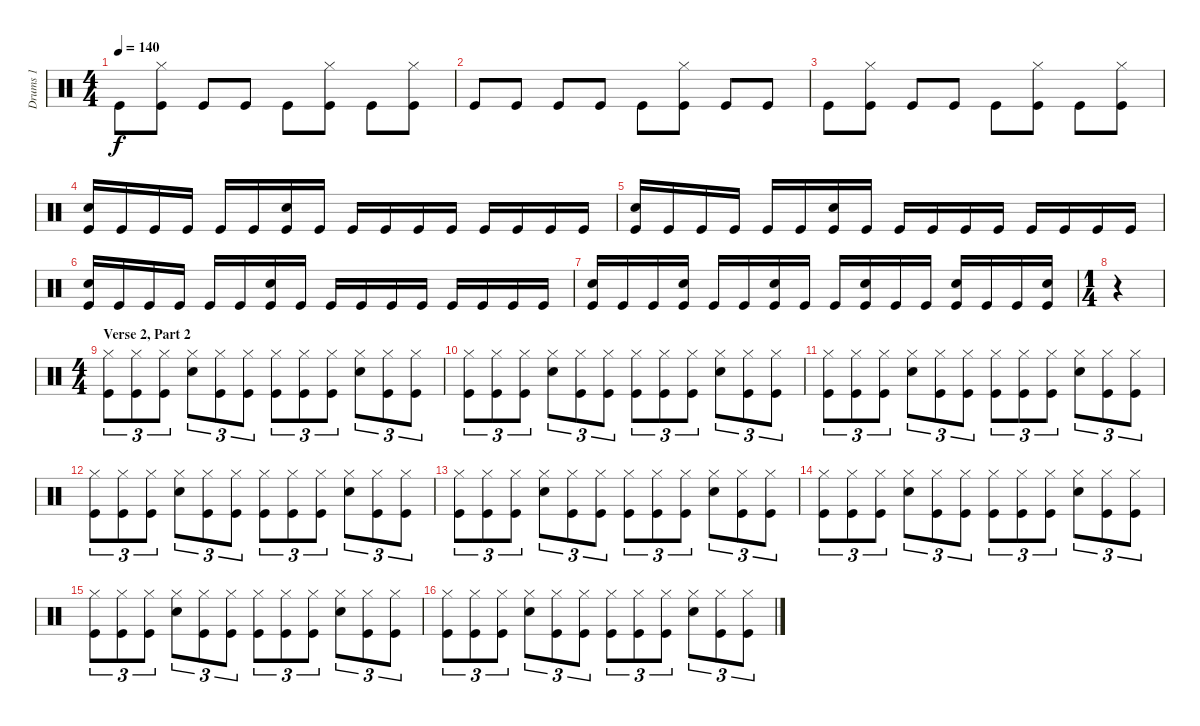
\track ("Drums 1" "Drums 1") {instrument percussion}
\staff {score}
\articulation defaults
\ts (4 4)
\tempo 140
\clef neutral
\ks c "Kick (hit)".8{dy f}
("Hi-Hat (closed)" "Kick (hit)").8 "Kick (hit)".8 "Kick (hit)".8 "Kick (hit)".8 ("Hi-Hat (closed)" "Kick (hit)").8 "Kick (hit)".8 ("Hi-Hat (closed)" "Kick (hit)").8 |
"Kick (hit)".8 "Kick (hit)".8 "Kick (hit)".8 "Kick (hit)".8 "Kick (hit)".8 ("Hi-Hat (closed)" "Kick (hit)").8 "Kick (hit)".8 "Kick (hit)".8 |
"Kick (hit)".8 ("Hi-Hat (closed)" "Kick (hit)").8 "Kick (hit)".8 "Kick (hit)".8 "Kick (hit)".8 ("Hi-Hat (closed)" "Kick (hit)").8 "Kick (hit)".8 ("Hi-Hat (closed)" "Kick (hit)").8 |
("Snare (hit) 2" "Kick (hit)").16 "Kick (hit)".16 "Kick (hit)".16 "Kick (hit)".16 "Kick (hit)".16 "Kick (hit)".16 ("Snare (hit) 2" "Kick (hit)").16 "Kick (hit)".16 "Kick (hit)".16 "Kick (hit)".16 "Kick (hit)".16 "Kick (hit)".16 "Kick (hit)".16 "Kick (hit)".16 "Kick (hit)".16 "Kick (hit)".16 |
("Snare (hit) 2" "Kick (hit)").16 "Kick (hit)".16 "Kick (hit)".16 "Kick (hit)".16 "Kick (hit)".16 "Kick (hit)".16 ("Snare (hit) 2" "Kick (hit)").16 "Kick (hit)".16 "Kick (hit)".16 "Kick (hit)".16 "Kick (hit)".16 "Kick (hit)".16 "Kick (hit)".16 "Kick (hit)".16 "Kick (hit)".16 "Kick (hit)".16 |
("Snare (hit) 2" "Kick (hit)").16 "Kick (hit)".16 "Kick (hit)".16 "Kick (hit)".16 "Kick (hit)".16 "Kick (hit)".16 ("Snare (hit) 2" "Kick (hit)").16 "Kick (hit)".16 "Kick (hit)".16 "Kick (hit)".16 "Kick (hit)".16 "Kick (hit)".16 "Kick (hit)".16 "Kick (hit)".16 "Kick (hit)".16 "Kick (hit)".16 |
("Snare (hit) 2" "Kick (hit)").16 "Kick (hit)".16 "Kick (hit)".16 ("Snare (hit) 2" "Kick (hit)").16 "Kick (hit)".16 "Kick (hit)".16 ("Snare (hit) 2" "Kick (hit)").16 "Kick (hit)".16 "Kick (hit)".16 ("Snare (hit) 2" "Kick (hit)").16 "Kick (hit)".16 "Kick (hit)".16 ("Snare (hit) 2" "Kick (hit)").16 "Kick (hit)".16 "Kick (hit)".16 ("Snare (hit) 2" "Kick (hit)").16 |
\ts (1 4)
r.4 |
\ts (4 4)
\section ("" "Verse 2, Part 2")
("Hi-Hat (closed)" "Kick (hit)").8{tu (3 2)} ("Hi-Hat (closed)" "Kick (hit)").8{tu (3 2)} ("Hi-Hat (closed)" "Kick (hit)").8{tu (3 2)} ("Hi-Hat (closed)" "Snare (hit) 2").8{tu (3 2)} ("Hi-Hat (closed)" "Kick (hit)").8{tu (3 2)} ("Hi-Hat (closed)" "Kick (hit)").8{tu (3 2)} ("Hi-Hat (closed)" "Kick (hit)").8{tu (3 2)} ("Hi-Hat (closed)" "Kick (hit)").8{tu (3 2)} ("Hi-Hat (closed)" "Kick (hit)").8{tu (3 2)} ("Hi-Hat (closed)" "Snare (hit) 2").8{tu (3 2)} ("Hi-Hat (closed)" "Kick (hit)").8{tu (3 2)} ("Hi-Hat (closed)" "Kick (hit)").8{tu (3 2)} |
("Hi-Hat (closed)" "Kick (hit)").8{tu (3 2)} ("Hi-Hat (closed)" "Kick (hit)").8{tu (3 2)} ("Hi-Hat (closed)" "Kick (hit)").8{tu (3 2)} ("Hi-Hat (closed)" "Snare (hit) 2").8{tu (3 2)} ("Hi-Hat (closed)" "Kick (hit)").8{tu (3 2)} ("Hi-Hat (closed)" "Kick (hit)").8{tu (3 2)} ("Hi-Hat (closed)" "Kick (hit)").8{tu (3 2)} ("Hi-Hat (closed)" "Kick (hit)").8{tu (3 2)} ("Hi-Hat (closed)" "Kick (hit)").8{tu (3 2)} ("Hi-Hat (closed)" "Snare (hit) 2").8{tu (3 2)} ("Hi-Hat (closed)" "Kick (hit)").8{tu (3 2)} ("Hi-Hat (closed)" "Kick (hit)").8{tu (3 2)} |
("Hi-Hat (closed)" "Kick (hit)").8{tu (3 2)} ("Hi-Hat (closed)" "Kick (hit)").8{tu (3 2)} ("Hi-Hat (closed)" "Kick (hit)").8{tu (3 2)} ("Hi-Hat (closed)" "Snare (hit) 2").8{tu (3 2)} ("Hi-Hat (closed)" "Kick (hit)").8{tu (3 2)} ("Hi-Hat (closed)" "Kick (hit)").8{tu (3 2)} ("Hi-Hat (closed)" "Kick (hit)").8{tu (3 2)} ("Hi-Hat (closed)" "Kick (hit)").8{tu (3 2)} ("Hi-Hat (closed)" "Kick (hit)").8{tu (3 2)} ("Hi-Hat (closed)" "Snare (hit) 2").8{tu (3 2)} ("Hi-Hat (closed)" "Kick (hit)").8{tu (3 2)} ("Hi-Hat (closed)" "Kick (hit)").8{tu (3 2)} |
("Hi-Hat (closed)" "Kick (hit)").8{tu (3 2)} ("Hi-Hat (closed)" "Kick (hit)").8{tu (3 2)} ("Hi-Hat (closed)" "Kick (hit)").8{tu (3 2)} ("Hi-Hat (closed)" "Snare (hit) 2").8{tu (3 2)} ("Hi-Hat (closed)" "Kick (hit)").8{tu (3 2)} ("Hi-Hat (closed)" "Kick (hit)").8{tu (3 2)} ("Hi-Hat (closed)" "Kick (hit)").8{tu (3 2)} ("Hi-Hat (closed)" "Kick (hit)").8{tu (3 2)} ("Hi-Hat (closed)" "Kick (hit)").8{tu (3 2)} ("Hi-Hat (closed)" "Snare (hit) 2").8{tu (3 2)} ("Hi-Hat (closed)" "Kick (hit)").8{tu (3 2)} ("Hi-Hat (closed)" "Kick (hit)").8{tu (3 2)} |
("Hi-Hat (closed)" "Kick (hit)").8{tu (3 2)} ("Hi-Hat (closed)" "Kick (hit)").8{tu (3 2)} ("Hi-Hat (closed)" "Kick (hit)").8{tu (3 2)} ("Hi-Hat (closed)" "Snare (hit) 2").8{tu (3 2)} ("Hi-Hat (closed)" "Kick (hit)").8{tu (3 2)} ("Hi-Hat (closed)" "Kick (hit)").8{tu (3 2)} ("Hi-Hat (closed)" "Kick (hit)").8{tu (3 2)} ("Hi-Hat (closed)" "Kick (hit)").8{tu (3 2)} ("Hi-Hat (closed)" "Kick (hit)").8{tu (3 2)} ("Hi-Hat (closed)" "Snare (hit) 2").8{tu (3 2)} ("Hi-Hat (closed)" "Kick (hit)").8{tu (3 2)} ("Hi-Hat (closed)" "Kick (hit)").8{tu (3 2)} |
("Hi-Hat (closed)" "Kick (hit)").8{tu (3 2)} ("Hi-Hat (closed)" "Kick (hit)").8{tu (3 2)} ("Hi-Hat (closed)" "Kick (hit)").8{tu (3 2)} ("Hi-Hat (closed)" "Snare (hit) 2").8{tu (3 2)} ("Hi-Hat (closed)" "Kick (hit)").8{tu (3 2)} ("Hi-Hat (closed)" "Kick (hit)").8{tu (3 2)} ("Hi-Hat (closed)" "Kick (hit)").8{tu (3 2)} ("Hi-Hat (closed)" "Kick (hit)").8{tu (3 2)} ("Hi-Hat (closed)" "Kick (hit)").8{tu (3 2)} ("Hi-Hat (closed)" "Snare (hit) 2").8{tu (3 2)} ("Hi-Hat (closed)" "Kick (hit)").8{tu (3 2)} ("Hi-Hat (closed)" "Kick (hit)").8{tu (3 2)} |
("Hi-Hat (closed)" "Kick (hit)").8{tu (3 2)} ("Hi-Hat (closed)" "Kick (hit)").8{tu (3 2)} ("Hi-Hat (closed)" "Kick (hit)").8{tu (3 2)} ("Hi-Hat (closed)" "Snare (hit) 2").8{tu (3 2)} ("Hi-Hat (closed)" "Kick (hit)").8{tu (3 2)} ("Hi-Hat (closed)" "Kick (hit)").8{tu (3 2)} ("Hi-Hat (closed)" "Kick (hit)").8{tu (3 2)} ("Hi-Hat (closed)" "Kick (hit)").8{tu (3 2)} ("Hi-Hat (closed)" "Kick (hit)").8{tu (3 2)} ("Hi-Hat (closed)" "Snare (hit) 2").8{tu (3 2)} ("Hi-Hat (closed)" "Kick (hit)").8{tu (3 2)} ("Hi-Hat (closed)" "Kick (hit)").8{tu (3 2)} |
("Hi-Hat (closed)" "Kick (hit)").8{tu (3 2)} ("Hi-Hat (closed)" "Kick (hit)").8{tu (3 2)} ("Hi-Hat (closed)" "Kick (hit)").8{tu (3 2)} ("Hi-Hat (closed)" "Snare (hit) 2").8{tu (3 2)} ("Hi-Hat (closed)" "Kick (hit)").8{tu (3 2)} ("Hi-Hat (closed)" "Kick (hit)").8{tu (3 2)} ("Hi-Hat (closed)" "Kick (hit)").8{tu (3 2)} ("Hi-Hat (closed)" "Kick (hit)").8{tu (3 2)} ("Hi-Hat (closed)" "Kick (hit)").8{tu (3 2)} ("Hi-Hat (closed)" "Snare (hit) 2").8{tu (3 2)} ("Hi-Hat (closed)" "Kick (hit)").8{tu (3 2)} ("Hi-Hat (closed)" "Kick (hit)").8{tu (3 2)}
